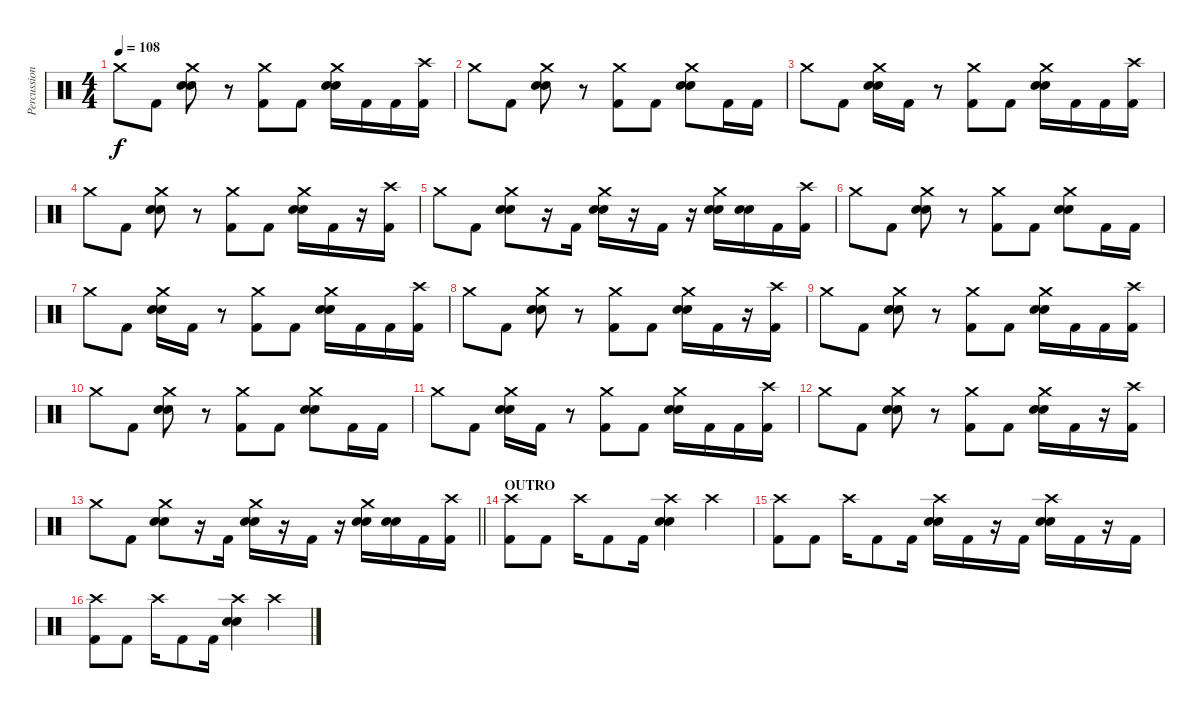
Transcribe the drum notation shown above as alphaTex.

\track ("Percussion" "Percussion") {instrument percussion}
\staff {score}
\articulation defaults
\ts (4 4)
\tempo 108
\clef neutral
\ks c "Crash medium (hit)".8{dy f} "Kick (hit) 2".8
("Crash medium (hit)" "Snare (hit) 2" "Electric Snare (hit)").8 r.8 ("Crash medium (hit)" "Kick (hit) 2").8 "Kick (hit) 2".8 ("Crash medium (hit)" "Snare (hit) 2" "Electric Snare (hit)").16 "Kick (hit) 2".16 "Kick (hit) 2".16 ("Crash high (hit)" "Kick (hit) 2").16 |
"Crash medium (hit)".8 "Kick (hit) 2".8 ("Crash medium (hit)" "Snare (hit) 2" "Electric Snare (hit)").8 r.8 ("Crash medium (hit)" "Kick (hit) 2").8 "Kick (hit) 2".8 ("Crash medium (hit)" "Snare (hit) 2" "Electric Snare (hit)").8 "Kick (hit) 2".16 "Kick (hit) 2".16 |
"Crash medium (hit)".8 "Kick (hit) 2".8 ("Crash medium (hit)" "Snare (hit) 2" "Electric Snare (hit)").16 "Kick (hit) 2".16 r.8 ("Crash medium (hit)" "Kick (hit) 2").8 "Kick (hit) 2".8 ("Crash medium (hit)" "Snare (hit) 2" "Electric Snare (hit)").16 "Kick (hit) 2".16 "Kick (hit) 2".16 ("Crash high (hit)" "Kick (hit) 2").16 |
"Crash medium (hit)".8 "Kick (hit) 2".8 ("Crash medium (hit)" "Snare (hit) 2" "Electric Snare (hit)").8 r.8 ("Crash medium (hit)" "Kick (hit) 2").8 "Kick (hit) 2".8 ("Crash medium (hit)" "Snare (hit) 2" "Electric Snare (hit)").16 "Kick (hit) 2".16 r.16 ("Crash high (hit)" "Kick (hit) 2").16 |
"Crash medium (hit)".8 "Kick (hit) 2".8 ("Crash medium (hit)" "Snare (hit) 2" "Electric Snare (hit)").8 r.16 "Kick (hit) 2".16 ("Crash medium (hit)" "Snare (hit) 2" "Electric Snare (hit)").16 r.16 "Kick (hit) 2".16 r.16 ("Crash medium (hit)" "Snare (hit) 2" "Electric Snare (hit)").16 ("Snare (hit) 2" "Electric Snare (hit)").16 "Kick (hit) 2".16 ("Crash high (hit)" "Kick (hit) 2").16 |
"Crash medium (hit)".8 "Kick (hit) 2".8 ("Crash medium (hit)" "Snare (hit) 2" "Electric Snare (hit)").8 r.8 ("Crash medium (hit)" "Kick (hit) 2").8 "Kick (hit) 2".8 ("Crash medium (hit)" "Snare (hit) 2" "Electric Snare (hit)").8 "Kick (hit) 2".16 "Kick (hit) 2".16 |
"Crash medium (hit)".8 "Kick (hit) 2".8 ("Crash medium (hit)" "Snare (hit) 2" "Electric Snare (hit)").16 "Kick (hit) 2".16 r.8 ("Crash medium (hit)" "Kick (hit) 2").8 "Kick (hit) 2".8 ("Crash medium (hit)" "Snare (hit) 2" "Electric Snare (hit)").16 "Kick (hit) 2".16 "Kick (hit) 2".16 ("Crash high (hit)" "Kick (hit) 2").16 |
"Crash medium (hit)".8 "Kick (hit) 2".8 ("Crash medium (hit)" "Snare (hit) 2" "Electric Snare (hit)").8 r.8 ("Crash medium (hit)" "Kick (hit) 2").8 "Kick (hit) 2".8 ("Crash medium (hit)" "Snare (hit) 2" "Electric Snare (hit)").16 "Kick (hit) 2".16 r.16 ("Crash high (hit)" "Kick (hit) 2").16 |
"Crash medium (hit)".8 "Kick (hit) 2".8 ("Crash medium (hit)" "Snare (hit) 2" "Electric Snare (hit)").8 r.8 ("Crash medium (hit)" "Kick (hit) 2").8 "Kick (hit) 2".8 ("Crash medium (hit)" "Snare (hit) 2" "Electric Snare (hit)").16 "Kick (hit) 2".16 "Kick (hit) 2".16 ("Crash high (hit)" "Kick (hit) 2").16 |
"Crash medium (hit)".8 "Kick (hit) 2".8 ("Crash medium (hit)" "Snare (hit) 2" "Electric Snare (hit)").8 r.8 ("Crash medium (hit)" "Kick (hit) 2").8 "Kick (hit) 2".8 ("Crash medium (hit)" "Snare (hit) 2" "Electric Snare (hit)").8 "Kick (hit) 2".16 "Kick (hit) 2".16 |
"Crash medium (hit)".8 "Kick (hit) 2".8 ("Crash medium (hit)" "Snare (hit) 2" "Electric Snare (hit)").16 "Kick (hit) 2".16 r.8 ("Crash medium (hit)" "Kick (hit) 2").8 "Kick (hit) 2".8 ("Crash medium (hit)" "Snare (hit) 2" "Electric Snare (hit)").16 "Kick (hit) 2".16 "Kick (hit) 2".16 ("Crash high (hit)" "Kick (hit) 2").16 |
"Crash medium (hit)".8 "Kick (hit) 2".8 ("Crash medium (hit)" "Snare (hit) 2" "Electric Snare (hit)").8 r.8 ("Crash medium (hit)" "Kick (hit) 2").8 "Kick (hit) 2".8 ("Crash medium (hit)" "Snare (hit) 2" "Electric Snare (hit)").16 "Kick (hit) 2".16 r.16 ("Crash high (hit)" "Kick (hit) 2").16 |
\barLineRight lightlight "Crash medium (hit)".8 "Kick (hit) 2".8
("Crash medium (hit)" "Snare (hit) 2" "Electric Snare (hit)").8 r.16 "Kick (hit) 2".16 ("Crash medium (hit)" "Snare (hit) 2" "Electric Snare (hit)").16 r.16 "Kick (hit) 2".16 r.16 ("Crash medium (hit)" "Snare (hit) 2" "Electric Snare (hit)").16 ("Snare (hit) 2" "Electric Snare (hit)").16 "Kick (hit) 2".16 ("Crash high (hit)" "Kick (hit) 2").16 |
\section ("" "OUTRO")
("Crash high (hit)" "Kick (hit) 2").8 "Kick (hit) 2".8 "Crash high (hit)".16 "Kick (hit) 2".8 "Kick (hit) 2".16 ("Crash high (hit)" "Snare (hit) 2" "Electric Snare (hit)").4 "Crash high (hit)".4 |
("Crash high (hit)" "Kick (hit) 2").8 "Kick (hit) 2".8 "Crash high (hit)".16 "Kick (hit) 2".8 "Kick (hit) 2".16 ("Crash high (hit)" "Snare (hit) 2" "Electric Snare (hit)").16 "Kick (hit) 2".16 r.16 "Kick (hit) 2".16 ("Crash high (hit)" "Snare (hit) 2" "Electric Snare (hit)").16 "Kick (hit) 2".16 r.16 "Kick (hit) 2".16 |
("Crash high (hit)" "Kick (hit) 2").8 "Kick (hit) 2".8 "Crash high (hit)".16 "Kick (hit) 2".8 "Kick (hit) 2".16 ("Crash high (hit)" "Snare (hit) 2" "Electric Snare (hit)").4 "Crash high (hit)".4
